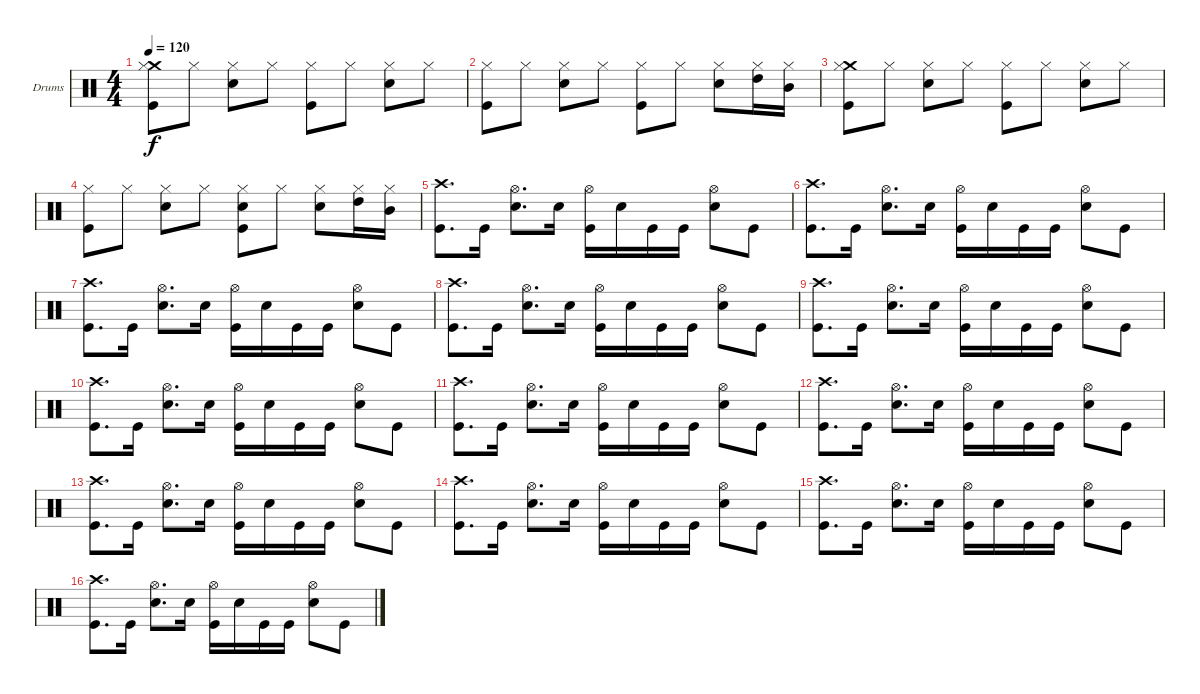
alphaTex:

\bracketExtendMode groupsimilarinstruments
\firstSystemTrackNameOrientation horizontal
\otherSystemsTrackNameOrientation horizontal
\track ("Drumkit" "Drums") {instrument percussion}
\staff {score}
\articulation defaults
\ts (4 4)
\tempo 120
\clef neutral
\ks c
("Crash medium (hit)" "Kick (hit)" "Hi-Hat (closed)").8{dy f} "Hi-Hat (closed)".8 ("Snare (hit) 2" "Hi-Hat (closed)").8 "Hi-Hat (closed)".8 ("Kick (hit)" "Hi-Hat (closed)").8 "Hi-Hat (closed)".8 ("Snare (hit) 2" "Hi-Hat (closed)").8 "Hi-Hat (closed)".8 |
("Kick (hit)" "Hi-Hat (closed)").8 "Hi-Hat (closed)".8 ("Snare (hit) 2" "Hi-Hat (closed)").8 "Hi-Hat (closed)".8 ("Kick (hit)" "Hi-Hat (closed)").8 "Hi-Hat (closed)".8 ("Snare (hit) 2" "Hi-Hat (closed)").8 ("High Tom (hit)" "Hi-Hat (closed)").16 ("Mid Tom (hit)" "Hi-Hat (closed)").16 |
("Crash medium (hit)" "Kick (hit)" "Hi-Hat (closed)").8 "Hi-Hat (closed)".8 ("Snare (hit) 2" "Hi-Hat (closed)").8 "Hi-Hat (closed)".8 ("Kick (hit)" "Hi-Hat (closed)").8 "Hi-Hat (closed)".8 ("Snare (hit) 2" "Hi-Hat (closed)").8 "Hi-Hat (closed)".8 |
("Kick (hit)" "Hi-Hat (closed)").8 "Hi-Hat (closed)".8 ("Snare (hit) 2" "Hi-Hat (closed)").8 "Hi-Hat (closed)".8 ("Snare (hit) 2" "Kick (hit)" "Hi-Hat (closed)").8 "Hi-Hat (closed)".8 ("Snare (hit) 2" "Hi-Hat (closed)").8 ("High Tom (hit)" "Hi-Hat (closed)").16 ("Mid Tom (hit)" "Hi-Hat (closed)").16 |
("Crash high (hit)" "Kick (hit)").8{d} "Kick (hit)".16 ("Hi-Hat (open)" "Snare (hit) 2").8{d} "Snare (hit) 2".16 ("Hi-Hat (open)" "Kick (hit)").16 "Snare (hit) 2".16 "Kick (hit)".16 "Kick (hit)".16 ("Hi-Hat (open)" "Snare (hit) 2").8 "Kick (hit)".8 |
("Crash high (hit)" "Kick (hit)").8{d} "Kick (hit)".16 ("Hi-Hat (open)" "Snare (hit) 2").8{d} "Snare (hit) 2".16 ("Hi-Hat (open)" "Kick (hit)").16 "Snare (hit) 2".16 "Kick (hit)".16 "Kick (hit)".16 ("Hi-Hat (open)" "Snare (hit) 2").8 "Kick (hit)".8 |
("Crash high (hit)" "Kick (hit)").8{d} "Kick (hit)".16 ("Hi-Hat (open)" "Snare (hit) 2").8{d} "Snare (hit) 2".16 ("Hi-Hat (open)" "Kick (hit)").16 "Snare (hit) 2".16 "Kick (hit)".16 "Kick (hit)".16 ("Hi-Hat (open)" "Snare (hit) 2").8 "Kick (hit)".8 |
("Crash high (hit)" "Kick (hit)").8{d} "Kick (hit)".16 ("Hi-Hat (open)" "Snare (hit) 2").8{d} "Snare (hit) 2".16 ("Hi-Hat (open)" "Kick (hit)").16 "Snare (hit) 2".16 "Kick (hit)".16 "Kick (hit)".16 ("Hi-Hat (open)" "Snare (hit) 2").8 "Kick (hit)".8 |
("Crash high (hit)" "Kick (hit)").8{d} "Kick (hit)".16 ("Hi-Hat (open)" "Snare (hit) 2").8{d} "Snare (hit) 2".16 ("Hi-Hat (open)" "Kick (hit)").16 "Snare (hit) 2".16 "Kick (hit)".16 "Kick (hit)".16 ("Hi-Hat (open)" "Snare (hit) 2").8 "Kick (hit)".8 |
("Crash high (hit)" "Kick (hit)").8{d} "Kick (hit)".16 ("Hi-Hat (open)" "Snare (hit) 2").8{d} "Snare (hit) 2".16 ("Hi-Hat (open)" "Kick (hit)").16 "Snare (hit) 2".16 "Kick (hit)".16 "Kick (hit)".16 ("Hi-Hat (open)" "Snare (hit) 2").8 "Kick (hit)".8 |
("Crash high (hit)" "Kick (hit)").8{d} "Kick (hit)".16 ("Hi-Hat (open)" "Snare (hit) 2").8{d} "Snare (hit) 2".16 ("Hi-Hat (open)" "Kick (hit)").16 "Snare (hit) 2".16 "Kick (hit)".16 "Kick (hit)".16 ("Hi-Hat (open)" "Snare (hit) 2").8 "Kick (hit)".8 |
("Crash high (hit)" "Kick (hit)").8{d} "Kick (hit)".16 ("Hi-Hat (open)" "Snare (hit) 2").8{d} "Snare (hit) 2".16 ("Hi-Hat (open)" "Kick (hit)").16 "Snare (hit) 2".16 "Kick (hit)".16 "Kick (hit)".16 ("Hi-Hat (open)" "Snare (hit) 2").8 "Kick (hit)".8 |
("Crash high (hit)" "Kick (hit)").8{d} "Kick (hit)".16 ("Hi-Hat (open)" "Snare (hit) 2").8{d} "Snare (hit) 2".16 ("Hi-Hat (open)" "Kick (hit)").16 "Snare (hit) 2".16 "Kick (hit)".16 "Kick (hit)".16 ("Hi-Hat (open)" "Snare (hit) 2").8 "Kick (hit)".8 |
("Crash high (hit)" "Kick (hit)").8{d} "Kick (hit)".16 ("Hi-Hat (open)" "Snare (hit) 2").8{d} "Snare (hit) 2".16 ("Hi-Hat (open)" "Kick (hit)").16 "Snare (hit) 2".16 "Kick (hit)".16 "Kick (hit)".16 ("Hi-Hat (open)" "Snare (hit) 2").8 "Kick (hit)".8 |
("Crash high (hit)" "Kick (hit)").8{d} "Kick (hit)".16 ("Hi-Hat (open)" "Snare (hit) 2").8{d} "Snare (hit) 2".16 ("Hi-Hat (open)" "Kick (hit)").16 "Snare (hit) 2".16 "Kick (hit)".16 "Kick (hit)".16 ("Hi-Hat (open)" "Snare (hit) 2").8 "Kick (hit)".8 |
("Crash high (hit)" "Kick (hit)").8{d} "Kick (hit)".16 ("Hi-Hat (open)" "Snare (hit) 2").8{d} "Snare (hit) 2".16 ("Hi-Hat (open)" "Kick (hit)").16 "Snare (hit) 2".16 "Kick (hit)".16 "Kick (hit)".16 ("Hi-Hat (open)" "Snare (hit) 2").8 "Kick (hit)".8
